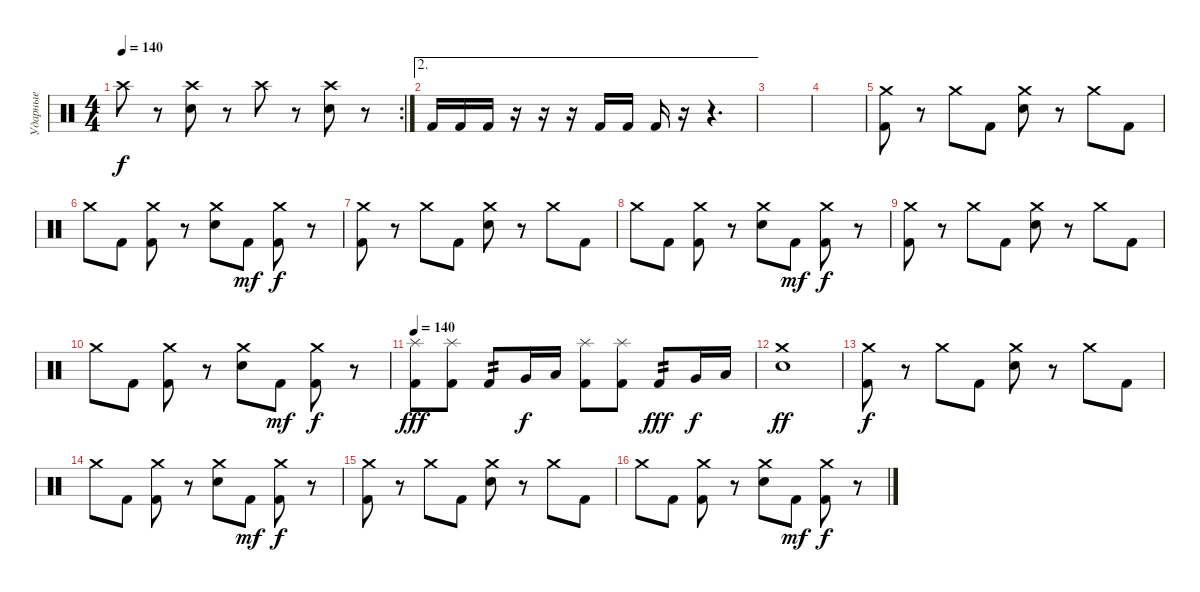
\track ("Ударные" "Ударные") {instrument percussion}
\staff {score}
\articulation defaults
\rc 2
\ts (4 4)
\tempo 140
\clef neutral
\ks c "Crash high (hit)".8{dy f}
r.8 ("Crash high (hit)" "Electric Snare (hit)").8 r.8 "Crash high (hit)".8 r.8 ("Crash high (hit)" "Electric Snare (hit)").8 r.8 |
\ae 2 "Kick (hit) 2".16 "Kick (hit) 2".16 "Kick (hit) 2".16
r.16 r.16 r.16 "Kick (hit) 2".16 "Kick (hit) 2".16 "Kick (hit) 2".16 r.16 r.4{d} |
|
|
("Crash medium (hit)" "Kick (hit) 2").8 r.8 "Crash medium (hit)".8 "Kick (hit) 2".8 ("Crash medium (hit)" "Snare (hit) 2").8 r.8 "Crash medium (hit)".8 "Kick (hit) 2".8 |
"Crash medium (hit)".8 "Kick (hit) 2".8 ("Crash medium (hit)" "Kick (hit) 2").8 r.8 ("Crash medium (hit)" "Snare (hit) 2").8 "Kick (hit) 2".8{dy mf} ("Crash medium (hit)" "Kick (hit) 2").8{dy f} r.8 |
("Crash medium (hit)" "Kick (hit) 2").8 r.8 "Crash medium (hit)".8 "Kick (hit) 2".8 ("Crash medium (hit)" "Snare (hit) 2").8 r.8 "Crash medium (hit)".8 "Kick (hit) 2".8 |
"Crash medium (hit)".8 "Kick (hit) 2".8 ("Crash medium (hit)" "Kick (hit) 2").8 r.8 ("Crash medium (hit)" "Snare (hit) 2").8 "Kick (hit) 2".8{dy mf} ("Crash medium (hit)" "Kick (hit) 2").8{dy f} r.8 |
("Crash medium (hit)" "Kick (hit) 2").8 r.8 "Crash medium (hit)".8 "Kick (hit) 2".8 ("Crash medium (hit)" "Snare (hit) 2").8 r.8 "Crash medium (hit)".8 "Kick (hit) 2".8 |
"Crash medium (hit)".8 "Kick (hit) 2".8 ("Crash medium (hit)" "Kick (hit) 2").8 r.8 ("Crash medium (hit)" "Snare (hit) 2").8 "Kick (hit) 2".8{dy mf} ("Crash medium (hit)" "Kick (hit) 2").8{dy f} r.8 |
\tempo 140
("Splash (hit)" "Kick (hit) 2").8{dy fff} ("Splash (hit)" "Kick (hit) 2").8 "Kick (hit) 2".8{tp 2} "Very Low Tom (hit)".16{dy f} "Low Floor Tom (hit)".16 ("Splash (hit)" "Kick (hit) 2").8 ("Splash (hit)" "Kick (hit) 2").8 "Kick (hit) 2".8{tp 2 dy fff} "Very Low Tom (hit)".16{dy f} "Low Floor Tom (hit)".16 |
("Crash medium (hit)" "Snare (hit) 2").1{dy ff} |
("Crash medium (hit)" "Kick (hit) 2").8{dy f} r.8 "Crash medium (hit)".8 "Kick (hit) 2".8 ("Crash medium (hit)" "Snare (hit) 2").8 r.8 "Crash medium (hit)".8 "Kick (hit) 2".8 |
"Crash medium (hit)".8 "Kick (hit) 2".8 ("Crash medium (hit)" "Kick (hit) 2").8 r.8 ("Crash medium (hit)" "Snare (hit) 2").8 "Kick (hit) 2".8{dy mf} ("Crash medium (hit)" "Kick (hit) 2").8{dy f} r.8 |
("Crash medium (hit)" "Kick (hit) 2").8 r.8 "Crash medium (hit)".8 "Kick (hit) 2".8 ("Crash medium (hit)" "Snare (hit) 2").8 r.8 "Crash medium (hit)".8 "Kick (hit) 2".8 |
"Crash medium (hit)".8 "Kick (hit) 2".8 ("Crash medium (hit)" "Kick (hit) 2").8 r.8 ("Crash medium (hit)" "Snare (hit) 2").8 "Kick (hit) 2".8{dy mf} ("Crash medium (hit)" "Kick (hit) 2").8{dy f} r.8
